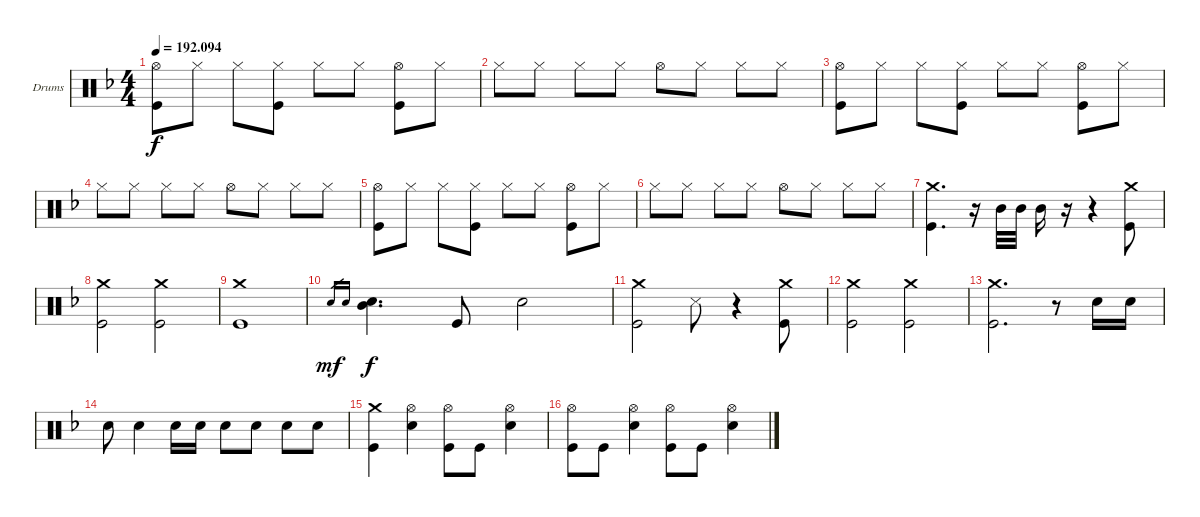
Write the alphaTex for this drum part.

\bracketExtendMode groupsimilarinstruments
\firstSystemTrackNameOrientation horizontal
\otherSystemsTrackNameOrientation horizontal
\track ("Александр Манякин" "Drums") {instrument percussion}
\staff {score}
\articulation defaults
\ts (4 4)
\tempo
192.094
\accidentals auto
\clef neutral
\ottava regular
\simile none
\ks f
("Hi-Hat (open)" "Kick (hit)").8{dy f} "Hi-Hat (closed)".8 "Hi-Hat (closed)".8 ("Hi-Hat (closed)" "Kick (hit)").8 "Hi-Hat (closed)".8 "Hi-Hat (closed)".8 ("Hi-Hat (open)" "Kick (hit)").8 "Hi-Hat (closed)".8 |
"Hi-Hat (closed)".8 "Hi-Hat (closed)".8 "Hi-Hat (closed)".8 "Hi-Hat (closed)".8 "Hi-Hat (open)".8 "Hi-Hat (closed)".8 "Hi-Hat (closed)".8 "Hi-Hat (closed)".8 |
("Hi-Hat (open)" "Kick (hit)").8 "Hi-Hat (closed)".8 "Hi-Hat (closed)".8 ("Hi-Hat (closed)" "Kick (hit)").8 "Hi-Hat (closed)".8 "Hi-Hat (closed)".8 ("Hi-Hat (open)" "Kick (hit)").8 "Hi-Hat (closed)".8 |
"Hi-Hat (closed)".8 "Hi-Hat (closed)".8 "Hi-Hat (closed)".8 "Hi-Hat (closed)".8 "Hi-Hat (open)".8 "Hi-Hat (closed)".8 "Hi-Hat (closed)".8 "Hi-Hat (closed)".8 |
("Hi-Hat (open)" "Kick (hit)").8 "Hi-Hat (closed)".8 "Hi-Hat (closed)".8 ("Hi-Hat (closed)" "Kick (hit)").8 "Hi-Hat (closed)".8 "Hi-Hat (closed)".8 ("Hi-Hat (open)" "Kick (hit)").8 "Hi-Hat (closed)".8 |
"Hi-Hat (closed)".8 "Hi-Hat (closed)".8 "Hi-Hat (closed)".8 "Hi-Hat (closed)".8 "Hi-Hat (open)".8 "Hi-Hat (closed)".8 "Hi-Hat (closed)".8 "Hi-Hat (closed)".8 |
("Crash medium (hit)" "Kick (hit)").4{d} r.16 "Mid Tom (hit)".32 "Mid Tom (hit)".32 "Mid Tom (hit)".16 r.16 r.4 ("Crash medium (hit)" "Kick (hit)").8 |
("Crash medium (hit)" "Kick (hit)").2 ("Crash medium (hit)" "Kick (hit)").2 |
("Crash medium (hit)" "Kick (hit)").1 |
"Snare (hit) 2".16{gr dy mf} "Snare (hit) 2".16{gr} ("Snare (hit) 2" "Mid Tom (hit)").4{d dy f} "Kick (hit)".8 "Snare (hit) 2".2 |
("Crash medium (hit)" "Kick (hit)").2 "Snare (side stick) 3".8 r.4 ("Crash medium (hit)" "Kick (hit)").8 |
("Crash medium (hit)" "Kick (hit)").2 ("Crash medium (hit)" "Kick (hit)").2 |
("Crash medium (hit)" "Kick (hit)").2{d} r.8 "Snare (hit) 2".16 "Snare (hit) 2".16 |
"Snare (hit) 2".8 "Snare (hit) 2".4 "Snare (hit) 2".16 "Snare (hit) 2".16 "Snare (hit) 2".8 "Snare (hit) 2".8 "Snare (hit) 2".8 "Snare (hit) 2".8 |
("Crash medium (hit)" "Kick (hit)").4 ("Hi-Hat (open)" "Snare (hit) 2").4 ("Hi-Hat (open)" "Kick (hit)").8 "Kick (hit)".8 ("Hi-Hat (open)" "Snare (hit) 2").4 |
("Hi-Hat (open)" "Kick (hit)").8 "Kick (hit)".8 ("Hi-Hat (open)" "Snare (hit) 2").4 ("Hi-Hat (open)" "Kick (hit)").8 "Kick (hit)".8 ("Hi-Hat (open)" "Snare (hit) 2").4
